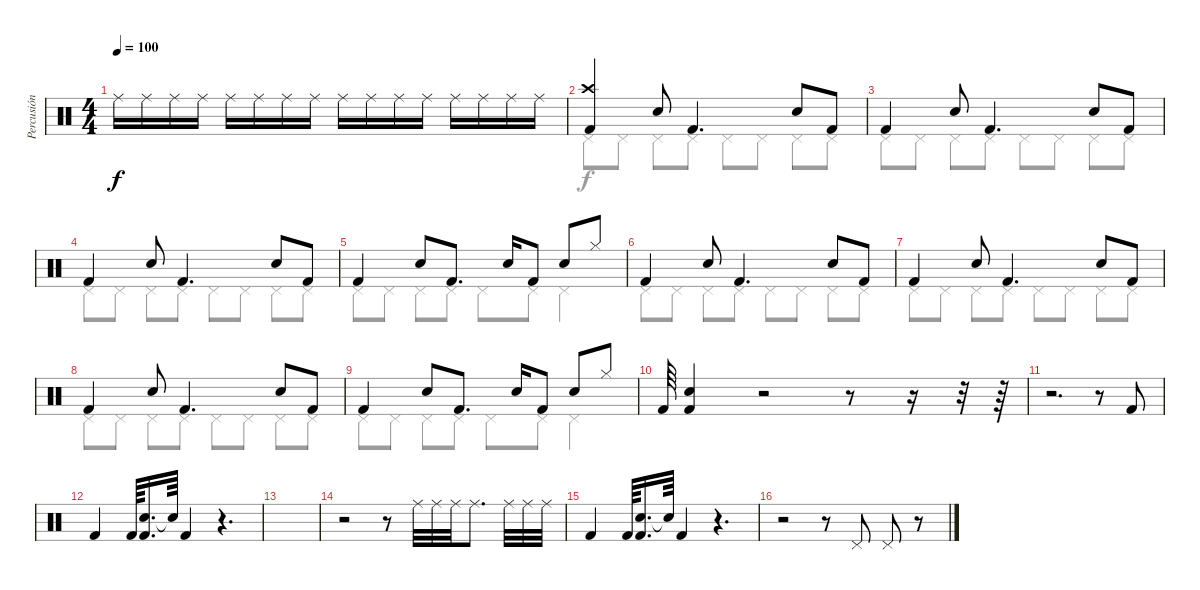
\track ("Percusión" "Percusión") {instrument percussion}
\staff {score}
\articulation defaults
\voice
\ts (4 4)
\tempo 100
\clef neutral
\ks c "Ride (middle)".16{dy f} "Ride (middle)".16 "Ride (middle)".16 "Ride (middle)".16 "Ride (middle)".16 "Ride (middle)".16 "Ride (middle)".16 "Ride (middle)".16 "Ride (middle)".16 "Ride (middle)".16 "Ride (middle)".16 "Ride (middle)".16 "Ride (middle)".16 "Ride (middle)".16 "Ride (middle)".16 "Ride (middle)".16
|
("Crash high (hit)" "Kick (hit) 2").4{volume 16} "Electric Snare (hit)".8 "Kick (hit) 2".4{d} "Electric Snare (hit)".8 "Kick (hit) 2".8 |
"Kick (hit) 2".4 "Electric Snare (hit)".8 "Kick (hit) 2".4{d} "Electric Snare (hit)".8 "Kick (hit) 2".8 |
"Kick (hit) 2".4 "Electric Snare (hit)".8 "Kick (hit) 2".4{d} "Electric Snare (hit)".8 "Kick (hit) 2".8 |
"Kick (hit) 2".4 "Electric Snare (hit)".8 "Kick (hit) 2".8{d} "Electric Snare (hit)".16 "Kick (hit) 2".8 "Electric Snare (hit)".8 "Hi-Hat (closed)".8 |
"Kick (hit) 2".4 "Electric Snare (hit)".8 "Kick (hit) 2".4{d} "Electric Snare (hit)".8 "Kick (hit) 2".8 |
"Kick (hit) 2".4 "Electric Snare (hit)".8 "Kick (hit) 2".4{d} "Electric Snare (hit)".8 "Kick (hit) 2".8 |
"Kick (hit) 2".4 "Electric Snare (hit)".8 "Kick (hit) 2".4{d} "Electric Snare (hit)".8 "Kick (hit) 2".8 |
"Kick (hit) 2".4 "Electric Snare (hit)".8 "Kick (hit) 2".8{d} "Electric Snare (hit)".16 "Kick (hit) 2".8 "Electric Snare (hit)".8 "Hi-Hat (closed)".8 |
"Kick (hit) 2".64 ("Electric Snare (hit)" "Kick (hit) 2").4 r.2 r.8 r.16 r.32 r.64 |
r.2{d} r.8 "Kick (hit) 2".8 |
"Kick (hit) 2".4 "Kick (hit) 2".64 ("Electric Snare (hit)" "Kick (hit) 2").16{d} "Snare (hit)"{t}.64 "Kick (hit) 2".4 r.4{d} |
|
r.2 r.8 "Ride (middle)".32 "Ride (middle)".32 "Ride (middle)".32 "Ride (middle)".8{d} "Ride (middle)".32 "Ride (middle)".32 "Ride (middle)".32 |
"Kick (hit) 2".4 "Kick (hit) 2".64 ("Electric Snare (hit)" "Kick (hit) 2").16{d} "Snare (hit)"{t}.64 "Kick (hit) 2".4 r.4{d} |
r.2 r.8 "Pedal Hi-Hat (hit)".8 "Pedal Hi-Hat (hit)".8 r.8
\voice
\clef neutral
\ottava regular
\simile none
\ks c
|
"Pedal Hi-Hat (hit)".8 "Pedal Hi-Hat (hit)".8 "Pedal Hi-Hat (hit)".8 "Pedal Hi-Hat (hit)".8 "Pedal Hi-Hat (hit)".8 "Pedal Hi-Hat (hit)".8 "Pedal Hi-Hat (hit)".8 "Pedal Hi-Hat (hit)".8 |
"Pedal Hi-Hat (hit)".8 "Pedal Hi-Hat (hit)".8 "Pedal Hi-Hat (hit)".8 "Pedal Hi-Hat (hit)".8 "Pedal Hi-Hat (hit)".8 "Pedal Hi-Hat (hit)".8 "Pedal Hi-Hat (hit)".8 "Pedal Hi-Hat (hit)".8 |
"Pedal Hi-Hat (hit)".8 "Pedal Hi-Hat (hit)".8 "Pedal Hi-Hat (hit)".8 "Pedal Hi-Hat (hit)".8 "Pedal Hi-Hat (hit)".8 "Pedal Hi-Hat (hit)".8 "Pedal Hi-Hat (hit)".8 "Pedal Hi-Hat (hit)".8 |
"Pedal Hi-Hat (hit)".8 "Pedal Hi-Hat (hit)".8 "Pedal Hi-Hat (hit)".8 "Pedal Hi-Hat (hit)".8 "Pedal Hi-Hat (hit)".8 "Pedal Hi-Hat (hit)".8 "Pedal Hi-Hat (hit)".4 |
"Pedal Hi-Hat (hit)".8 "Pedal Hi-Hat (hit)".8 "Pedal Hi-Hat (hit)".8 "Pedal Hi-Hat (hit)".8 "Pedal Hi-Hat (hit)".8 "Pedal Hi-Hat (hit)".8 "Pedal Hi-Hat (hit)".8 "Pedal Hi-Hat (hit)".8 |
"Pedal Hi-Hat (hit)".8 "Pedal Hi-Hat (hit)".8 "Pedal Hi-Hat (hit)".8 "Pedal Hi-Hat (hit)".8 "Pedal Hi-Hat (hit)".8 "Pedal Hi-Hat (hit)".8 "Pedal Hi-Hat (hit)".8 "Pedal Hi-Hat (hit)".8 |
"Pedal Hi-Hat (hit)".8 "Pedal Hi-Hat (hit)".8 "Pedal Hi-Hat (hit)".8 "Pedal Hi-Hat (hit)".8 "Pedal Hi-Hat (hit)".8 "Pedal Hi-Hat (hit)".8 "Pedal Hi-Hat (hit)".8 "Pedal Hi-Hat (hit)".8 |
"Pedal Hi-Hat (hit)".8 "Pedal Hi-Hat (hit)".8 "Pedal Hi-Hat (hit)".8 "Pedal Hi-Hat (hit)".8 "Pedal Hi-Hat (hit)".8 "Pedal Hi-Hat (hit)".8 "Pedal Hi-Hat (hit)".4 |
|
|
|
|
|
|
